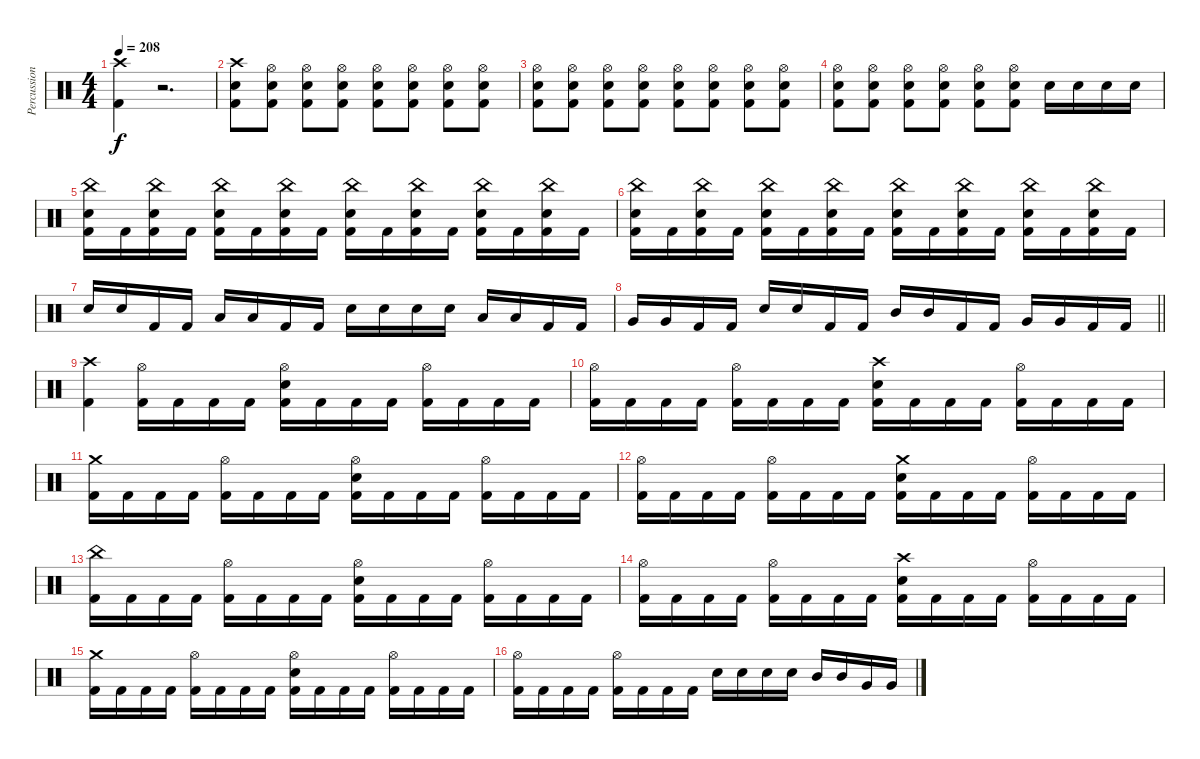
\track ("Percussion" "Percussion") {instrument percussion}
\staff {score}
\articulation defaults
\ts (4 4)
\tempo 208
\clef neutral
\ks c
("Crash high (hit)" "Kick (hit) 2").4{dy f} r.2{d} |
("Crash high (hit)" "Snare (hit) 2" "Kick (hit) 2").8 ("Hi-Hat (open)" "Snare (hit) 2" "Kick (hit) 2").8 ("Hi-Hat (open)" "Snare (hit) 2" "Kick (hit) 2").8 ("Hi-Hat (open)" "Snare (hit) 2" "Kick (hit) 2").8 ("Hi-Hat (open)" "Snare (hit) 2" "Kick (hit) 2").8 ("Hi-Hat (open)" "Snare (hit) 2" "Kick (hit) 2").8 ("Hi-Hat (open)" "Snare (hit) 2" "Kick (hit) 2").8 ("Hi-Hat (open)" "Snare (hit) 2" "Kick (hit) 2").8 |
("Hi-Hat (open)" "Snare (hit) 2" "Kick (hit) 2").8 ("Hi-Hat (open)" "Snare (hit) 2" "Kick (hit) 2").8 ("Hi-Hat (open)" "Snare (hit) 2" "Kick (hit) 2").8 ("Hi-Hat (open)" "Snare (hit) 2" "Kick (hit) 2").8 ("Hi-Hat (open)" "Snare (hit) 2" "Kick (hit) 2").8 ("Hi-Hat (open)" "Snare (hit) 2" "Kick (hit) 2").8 ("Hi-Hat (open)" "Snare (hit) 2" "Kick (hit) 2").8 ("Hi-Hat (open)" "Snare (hit) 2" "Kick (hit) 2").8 |
("Hi-Hat (open)" "Snare (hit) 2" "Kick (hit) 2").8 ("Hi-Hat (open)" "Snare (hit) 2" "Kick (hit) 2").8 ("Hi-Hat (open)" "Snare (hit) 2" "Kick (hit) 2").8 ("Hi-Hat (open)" "Snare (hit) 2" "Kick (hit) 2").8 ("Hi-Hat (open)" "Snare (hit) 2" "Kick (hit) 2").8 ("Hi-Hat (open)" "Snare (hit) 2" "Kick (hit) 2").8 "Snare (hit) 2".16 "Snare (hit) 2".16 "Snare (hit) 2".16 "Snare (hit) 2".16 |
("Snare (hit) 2" "China (hit)" "Kick (hit) 2").16 "Kick (hit) 2".16 ("Snare (hit) 2" "China (hit)" "Kick (hit) 2").16 "Kick (hit) 2".16 ("Snare (hit) 2" "China (hit)" "Kick (hit) 2").16 "Kick (hit) 2".16 ("Snare (hit) 2" "China (hit)" "Kick (hit) 2").16 "Kick (hit) 2".16 ("Snare (hit) 2" "China (hit)" "Kick (hit) 2").16 "Kick (hit) 2".16 ("Snare (hit) 2" "China (hit)" "Kick (hit) 2").16 "Kick (hit) 2".16 ("Snare (hit) 2" "China (hit)" "Kick (hit) 2").16 "Kick (hit) 2".16 ("Snare (hit) 2" "China (hit)" "Kick (hit) 2").16 "Kick (hit) 2".16 |
("Snare (hit) 2" "China (hit)" "Kick (hit) 2").16 "Kick (hit) 2".16 ("Snare (hit) 2" "China (hit)" "Kick (hit) 2").16 "Kick (hit) 2".16 ("Snare (hit) 2" "China (hit)" "Kick (hit) 2").16 "Kick (hit) 2".16 ("Snare (hit) 2" "China (hit)" "Kick (hit) 2").16 "Kick (hit) 2".16 ("Snare (hit) 2" "China (hit)" "Kick (hit) 2").16 "Kick (hit) 2".16 ("Snare (hit) 2" "China (hit)" "Kick (hit) 2").16 "Kick (hit) 2".16 ("Snare (hit) 2" "China (hit)" "Kick (hit) 2").16 "Kick (hit) 2".16 ("Snare (hit) 2" "China (hit)" "Kick (hit) 2").16 "Kick (hit) 2".16 |
"Snare (hit) 2".16 "Snare (hit) 2".16 "Kick (hit) 2".16 "Kick (hit) 2".16 "Low Tom (hit)".16 "Low Tom (hit)".16 "Kick (hit) 2".16 "Kick (hit) 2".16 "Snare (hit) 2".16 "Snare (hit) 2".16 "Snare (hit) 2".16 "Snare (hit) 2".16 "Low Tom (hit)".16 "Low Tom (hit)".16 "Kick (hit) 2".16 "Kick (hit) 2".16 |
\barLineRight lightlight "Very Low Tom (hit)".16 "Very Low Tom (hit)".16 "Kick (hit) 2".16 "Kick (hit) 2".16 "Snare (hit) 2".16 "Snare (hit) 2".16 "Kick (hit) 2".16 "Kick (hit) 2".16 "Mid Tom (hit)".16 "Mid Tom (hit)".16 "Kick (hit) 2".16 "Kick (hit) 2".16 "Very Low Tom (hit)".16 "Very Low Tom (hit)".16 "Kick (hit) 2".16 "Kick (hit) 2".16
|
("Crash high (hit)" "Kick (hit) 2").4 ("Hi-Hat (open)" "Kick (hit) 2").16 "Kick (hit) 2".16 "Kick (hit) 2".16 "Kick (hit) 2".16 ("Hi-Hat (open)" "Snare (hit) 2" "Kick (hit) 2").16 "Kick (hit) 2".16 "Kick (hit) 2".16 "Kick (hit) 2".16 ("Hi-Hat (open)" "Kick (hit) 2").16 "Kick (hit) 2".16 "Kick (hit) 2".16 "Kick (hit) 2".16 |
("Hi-Hat (open)" "Kick (hit) 2").16 "Kick (hit) 2".16 "Kick (hit) 2".16 "Kick (hit) 2".16 ("Hi-Hat (open)" "Kick (hit) 2").16 "Kick (hit) 2".16 "Kick (hit) 2".16 "Kick (hit) 2".16 ("Crash high (hit)" "Snare (hit) 2" "Kick (hit) 2").16 "Kick (hit) 2".16 "Kick (hit) 2".16 "Kick (hit) 2".16 ("Hi-Hat (open)" "Kick (hit) 2").16 "Kick (hit) 2".16 "Kick (hit) 2".16 "Kick (hit) 2".16 |
("Crash medium (hit)" "Kick (hit) 2").16 "Kick (hit) 2".16 "Kick (hit) 2".16 "Kick (hit) 2".16 ("Hi-Hat (open)" "Kick (hit) 2").16 "Kick (hit) 2".16 "Kick (hit) 2".16 "Kick (hit) 2".16 ("Hi-Hat (open)" "Snare (hit) 2" "Kick (hit) 2").16 "Kick (hit) 2".16 "Kick (hit) 2".16 "Kick (hit) 2".16 ("Hi-Hat (open)" "Kick (hit) 2").16 "Kick (hit) 2".16 "Kick (hit) 2".16 "Kick (hit) 2".16 |
("Hi-Hat (open)" "Kick (hit) 2").16 "Kick (hit) 2".16 "Kick (hit) 2".16 "Kick (hit) 2".16 ("Hi-Hat (open)" "Kick (hit) 2").16 "Kick (hit) 2".16 "Kick (hit) 2".16 "Kick (hit) 2".16 ("Crash medium (hit)" "Snare (hit) 2" "Kick (hit) 2").16 "Kick (hit) 2".16 "Kick (hit) 2".16 "Kick (hit) 2".16 ("Hi-Hat (open)" "Kick (hit) 2").16 "Kick (hit) 2".16 "Kick (hit) 2".16 "Kick (hit) 2".16 |
("China (hit)" "Kick (hit) 2").16 "Kick (hit) 2".16 "Kick (hit) 2".16 "Kick (hit) 2".16 ("Hi-Hat (open)" "Kick (hit) 2").16 "Kick (hit) 2".16 "Kick (hit) 2".16 "Kick (hit) 2".16 ("Hi-Hat (open)" "Snare (hit) 2" "Kick (hit) 2").16 "Kick (hit) 2".16 "Kick (hit) 2".16 "Kick (hit) 2".16 ("Hi-Hat (open)" "Kick (hit) 2").16 "Kick (hit) 2".16 "Kick (hit) 2".16 "Kick (hit) 2".16 |
("Hi-Hat (open)" "Kick (hit) 2").16 "Kick (hit) 2".16 "Kick (hit) 2".16 "Kick (hit) 2".16 ("Hi-Hat (open)" "Kick (hit) 2").16 "Kick (hit) 2".16 "Kick (hit) 2".16 "Kick (hit) 2".16 ("Crash high (hit)" "Snare (hit) 2" "Kick (hit) 2").16 "Kick (hit) 2".16 "Kick (hit) 2".16 "Kick (hit) 2".16 ("Hi-Hat (open)" "Kick (hit) 2").16 "Kick (hit) 2".16 "Kick (hit) 2".16 "Kick (hit) 2".16 |
("Crash medium (hit)" "Kick (hit) 2").16 "Kick (hit) 2".16 "Kick (hit) 2".16 "Kick (hit) 2".16 ("Hi-Hat (open)" "Kick (hit) 2").16 "Kick (hit) 2".16 "Kick (hit) 2".16 "Kick (hit) 2".16 ("Hi-Hat (open)" "Snare (hit) 2" "Kick (hit) 2").16 "Kick (hit) 2".16 "Kick (hit) 2".16 "Kick (hit) 2".16 ("Hi-Hat (open)" "Kick (hit) 2").16 "Kick (hit) 2".16 "Kick (hit) 2".16 "Kick (hit) 2".16 |
("Hi-Hat (open)" "Kick (hit) 2").16 "Kick (hit) 2".16 "Kick (hit) 2".16 "Kick (hit) 2".16 ("Hi-Hat (open)" "Kick (hit) 2").16 "Kick (hit) 2".16 "Kick (hit) 2".16 "Kick (hit) 2".16 "Snare (hit) 2".16 "Snare (hit) 2".16 "Snare (hit) 2".16 "Snare (hit) 2".16 "Mid Tom (hit)".16 "Mid Tom (hit)".16 "Very Low Tom (hit)".16 "Very Low Tom (hit)".16
